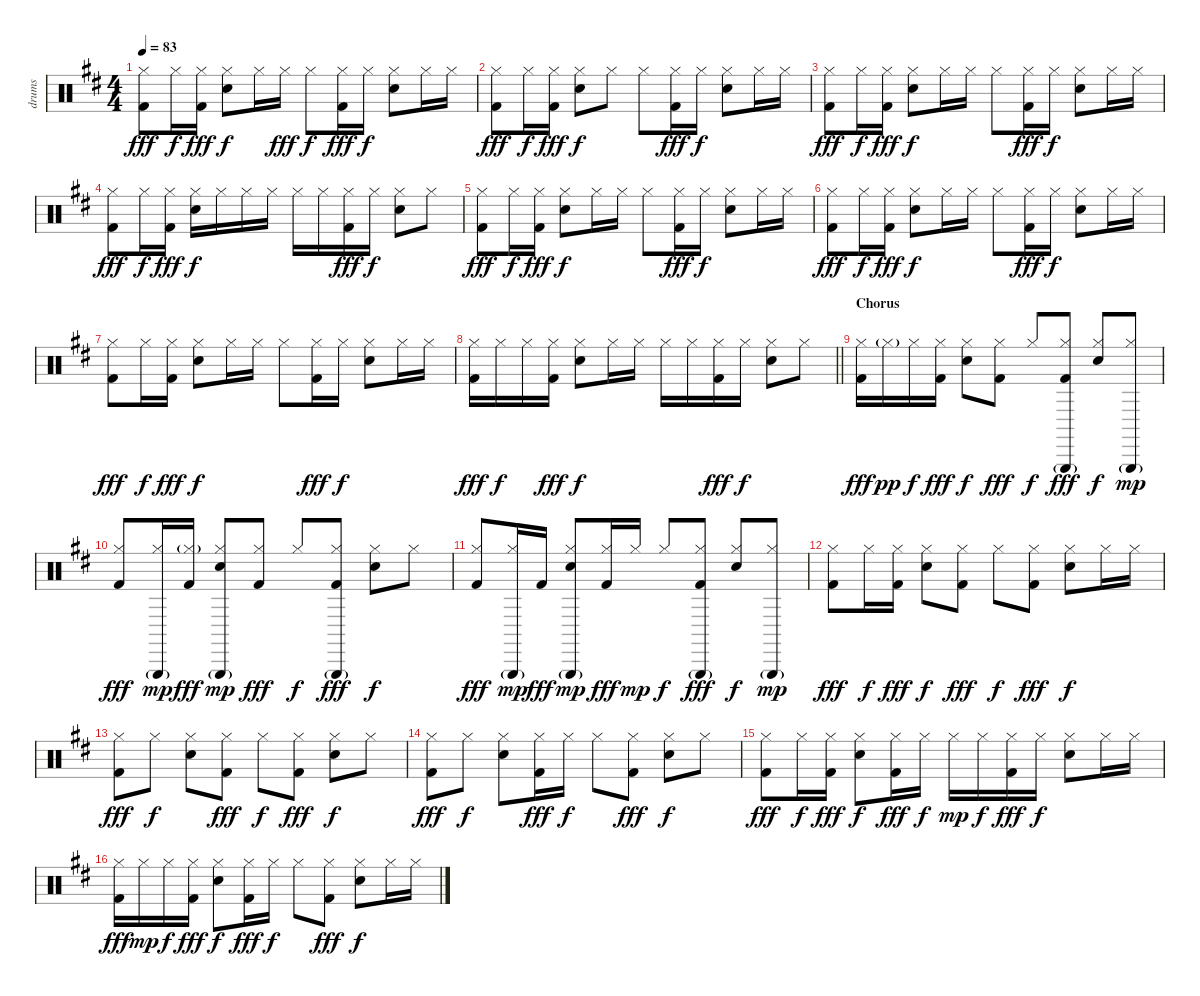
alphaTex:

\track ("drums" "drums") {instrument percussion}
\staff {score}
\articulation defaults
\ts (4 4)
\tempo 83
\clef neutral
\ks d
("Hi-Hat (closed)" "Kick (hit) 2").8{dy fff} "Hi-Hat (closed)".16{dy f} ("Hi-Hat (closed)" "Kick (hit) 2").16{dy fff} ("Hi-Hat (closed)" "Electric Snare (hit)").8{dy f} "Hi-Hat (closed)".16 "Hi-Hat (closed)".16{dy fff} "Hi-Hat (closed)".8{dy f} ("Hi-Hat (closed)" "Kick (hit) 2").16{dy fff} "Hi-Hat (closed)".16{dy f} ("Hi-Hat (closed)" "Electric Snare (hit)").8 "Hi-Hat (closed)".16 "Hi-Hat (closed)".16 |
("Hi-Hat (closed)" "Kick (hit) 2").8{dy fff} "Hi-Hat (closed)".16{dy f} ("Hi-Hat (closed)" "Kick (hit) 2").16{dy fff} ("Hi-Hat (closed)" "Electric Snare (hit)").8{dy f} "Hi-Hat (closed)".8 "Hi-Hat (closed)".8 ("Hi-Hat (closed)" "Kick (hit) 2").16{dy fff} "Hi-Hat (closed)".16{dy f} ("Hi-Hat (closed)" "Electric Snare (hit)").8 "Hi-Hat (closed)".16 "Hi-Hat (closed)".16 |
("Hi-Hat (closed)" "Kick (hit) 2").8{dy fff} "Hi-Hat (closed)".16{dy f} ("Hi-Hat (closed)" "Kick (hit) 2").16{dy fff} ("Hi-Hat (closed)" "Electric Snare (hit)").8{dy f} "Hi-Hat (closed)".16 "Hi-Hat (closed)".16 "Hi-Hat (closed)".8 ("Hi-Hat (closed)" "Kick (hit) 2").16{dy fff} "Hi-Hat (closed)".16{dy f} ("Hi-Hat (closed)" "Electric Snare (hit)").8 "Hi-Hat (closed)".16 "Hi-Hat (closed)".16 |
("Hi-Hat (closed)" "Kick (hit) 2").8{dy fff} "Hi-Hat (closed)".16{dy f} ("Hi-Hat (closed)" "Kick (hit) 2").16{dy fff} ("Hi-Hat (closed)" "Electric Snare (hit)").16{dy f} "Hi-Hat (closed)".16 "Hi-Hat (closed)".16 "Hi-Hat (closed)".16 "Hi-Hat (closed)".16 "Hi-Hat (closed)".16 ("Hi-Hat (closed)" "Kick (hit) 2").16{dy fff} "Hi-Hat (closed)".16{dy f} ("Hi-Hat (closed)" "Electric Snare (hit)").8 "Hi-Hat (closed)".8 |
("Hi-Hat (closed)" "Kick (hit) 2").8{dy fff} "Hi-Hat (closed)".16{dy f} ("Hi-Hat (closed)" "Kick (hit) 2").16{dy fff} ("Hi-Hat (closed)" "Electric Snare (hit)").8{dy f} "Hi-Hat (closed)".16 "Hi-Hat (closed)".16 "Hi-Hat (closed)".8 ("Hi-Hat (closed)" "Kick (hit) 2").16{dy fff} "Hi-Hat (closed)".16{dy f} ("Hi-Hat (closed)" "Electric Snare (hit)").8 "Hi-Hat (closed)".16 "Hi-Hat (closed)".16 |
("Hi-Hat (closed)" "Kick (hit) 2").8{dy fff} "Hi-Hat (closed)".16{dy f} ("Hi-Hat (closed)" "Kick (hit) 2").16{dy fff} ("Hi-Hat (closed)" "Electric Snare (hit)").8{dy f} "Hi-Hat (closed)".16 "Hi-Hat (closed)".16 "Hi-Hat (closed)".8 ("Hi-Hat (closed)" "Kick (hit) 2").16{dy fff} "Hi-Hat (closed)".16{dy f} ("Hi-Hat (closed)" "Electric Snare (hit)").8 "Hi-Hat (closed)".16 "Hi-Hat (closed)".16 |
("Hi-Hat (closed)" "Kick (hit) 2").8{dy fff} "Hi-Hat (closed)".16{dy f} ("Hi-Hat (closed)" "Kick (hit) 2").16{dy fff} ("Hi-Hat (closed)" "Electric Snare (hit)").8{dy f} "Hi-Hat (closed)".16 "Hi-Hat (closed)".16 "Hi-Hat (closed)".8 ("Hi-Hat (closed)" "Kick (hit) 2").16{dy fff} "Hi-Hat (closed)".16{dy f} ("Hi-Hat (closed)" "Electric Snare (hit)").8 "Hi-Hat (closed)".16 "Hi-Hat (closed)".16 |
\barLineRight lightlight
("Hi-Hat (closed)" "Kick (hit) 2").16{dy fff} "Hi-Hat (closed)".16{dy f} "Hi-Hat (closed)".16 ("Hi-Hat (closed)" "Kick (hit) 2").16{dy fff} ("Hi-Hat (closed)" "Electric Snare (hit)").8{dy f} "Hi-Hat (closed)".16 "Hi-Hat (closed)".16 "Hi-Hat (closed)".16 "Hi-Hat (closed)".16 ("Hi-Hat (closed)" "Kick (hit) 2").16{dy fff} "Hi-Hat (closed)".16{dy f} ("Hi-Hat (closed)" "Electric Snare (hit)").8 "Hi-Hat (closed)".8 |
\section ("" "Chorus")
("Hi-Hat (closed)" "Kick (hit) 2").16{dy fff} "Hi-Hat (closed)"{g}.16{dy pp} "Hi-Hat (closed)".16{dy f} ("Hi-Hat (closed)" "Kick (hit) 2").16{dy fff} ("Hi-Hat (closed)" "Electric Snare (hit)").8{dy f} ("Hi-Hat (closed)" "Kick (hit) 2").8{dy fff} "Hi-Hat (closed)".8{dy f} ("Triangle (hit)"{g} "Hi-Hat (closed)" "Kick (hit) 2").8{dy fff} ("Hi-Hat (closed)" "Electric Snare (hit)").8{dy f} ("Triangle (hit)"{g} "Hi-Hat (closed)").8{dy mp} |
("Hi-Hat (closed)" "Kick (hit) 2").8{dy fff} ("Triangle (hit)"{g} "Hi-Hat (closed)").16{dy mp} ("Hi-Hat (closed)"{g} "Kick (hit) 2").16{dy fff} ("Triangle (hit)"{g} "Hi-Hat (closed)" "Electric Snare (hit)").8{dy mp} ("Hi-Hat (closed)" "Kick (hit) 2").8{dy fff} "Hi-Hat (closed)".8{dy f} ("Triangle (hit)"{g} "Hi-Hat (closed)" "Kick (hit) 2").8{dy fff} ("Hi-Hat (closed)" "Electric Snare (hit)").8{dy f} "Hi-Hat (closed)".8 |
("Hi-Hat (closed)" "Kick (hit) 2").8{dy fff} ("Triangle (hit)"{g} "Hi-Hat (closed)").16{dy mp} "Kick (hit) 2".16{dy fff} ("Triangle (hit)"{g} "Hi-Hat (closed)" "Electric Snare (hit)").8{dy mp} ("Hi-Hat (closed)" "Kick (hit) 2").16{dy fff} "Hi-Hat (closed)".16{dy mp} "Hi-Hat (closed)".8{dy f} ("Triangle (hit)"{g} "Hi-Hat (closed)" "Kick (hit) 2").8{dy fff} ("Hi-Hat (closed)" "Electric Snare (hit)").8{dy f} ("Triangle (hit)"{g} "Hi-Hat (closed)").8{dy mp} |
("Hi-Hat (closed)" "Kick (hit) 2").8{dy fff} "Hi-Hat (closed)".16{dy f} ("Hi-Hat (closed)" "Kick (hit) 2").16{dy fff} ("Hi-Hat (closed)" "Electric Snare (hit)").8{dy f} ("Hi-Hat (closed)" "Kick (hit) 2").8{dy fff} "Hi-Hat (closed)".8{dy f} ("Hi-Hat (closed)" "Kick (hit) 2").8{dy fff} ("Hi-Hat (closed)" "Electric Snare (hit)").8{dy f} "Hi-Hat (closed)".16 "Hi-Hat (closed)".16 |
("Hi-Hat (closed)" "Kick (hit) 2").8{dy fff} "Hi-Hat (closed)".8{dy f} ("Hi-Hat (closed)" "Electric Snare (hit)").8 ("Hi-Hat (closed)" "Kick (hit) 2").8{dy fff} "Hi-Hat (closed)".8{dy f} ("Hi-Hat (closed)" "Kick (hit) 2").8{dy fff} ("Hi-Hat (closed)" "Electric Snare (hit)").8{dy f} "Hi-Hat (closed)".8 |
("Hi-Hat (closed)" "Kick (hit) 2").8{dy fff} "Hi-Hat (closed)".8{dy f} ("Hi-Hat (closed)" "Electric Snare (hit)").8 ("Hi-Hat (closed)" "Kick (hit) 2").16{dy fff} "Hi-Hat (closed)".16{dy f} "Hi-Hat (closed)".8 ("Hi-Hat (closed)" "Kick (hit) 2").8{dy fff} ("Hi-Hat (closed)" "Electric Snare (hit)").8{dy f} "Hi-Hat (closed)".8 |
("Hi-Hat (closed)" "Kick (hit) 2").8{dy fff} "Hi-Hat (closed)".16{dy f} ("Hi-Hat (closed)" "Kick (hit) 2").16{dy fff} ("Hi-Hat (closed)" "Electric Snare (hit)").8{dy f} ("Hi-Hat (closed)" "Kick (hit) 2").16{dy fff} "Hi-Hat (closed)".16{dy f} "Hi-Hat (closed)".16{dy mp} "Hi-Hat (closed)".16{dy f} ("Hi-Hat (closed)" "Kick (hit) 2").16{dy fff} "Hi-Hat (closed)".16{dy f} ("Hi-Hat (closed)" "Electric Snare (hit)").8 "Hi-Hat (closed)".16 "Hi-Hat (closed)".16 |
("Hi-Hat (closed)" "Kick (hit) 2").16{dy fff} "Hi-Hat (closed)".16{dy mp} "Hi-Hat (closed)".16{dy f} ("Hi-Hat (closed)" "Kick (hit) 2").16{dy fff} ("Hi-Hat (closed)" "Electric Snare (hit)").8{dy f} ("Hi-Hat (closed)" "Kick (hit) 2").16{dy fff} "Hi-Hat (closed)".16{dy f} "Hi-Hat (closed)".8 ("Hi-Hat (closed)" "Kick (hit) 2").8{dy fff} ("Hi-Hat (closed)" "Electric Snare (hit)").8{dy f} "Hi-Hat (closed)".16 "Hi-Hat (closed)".16
